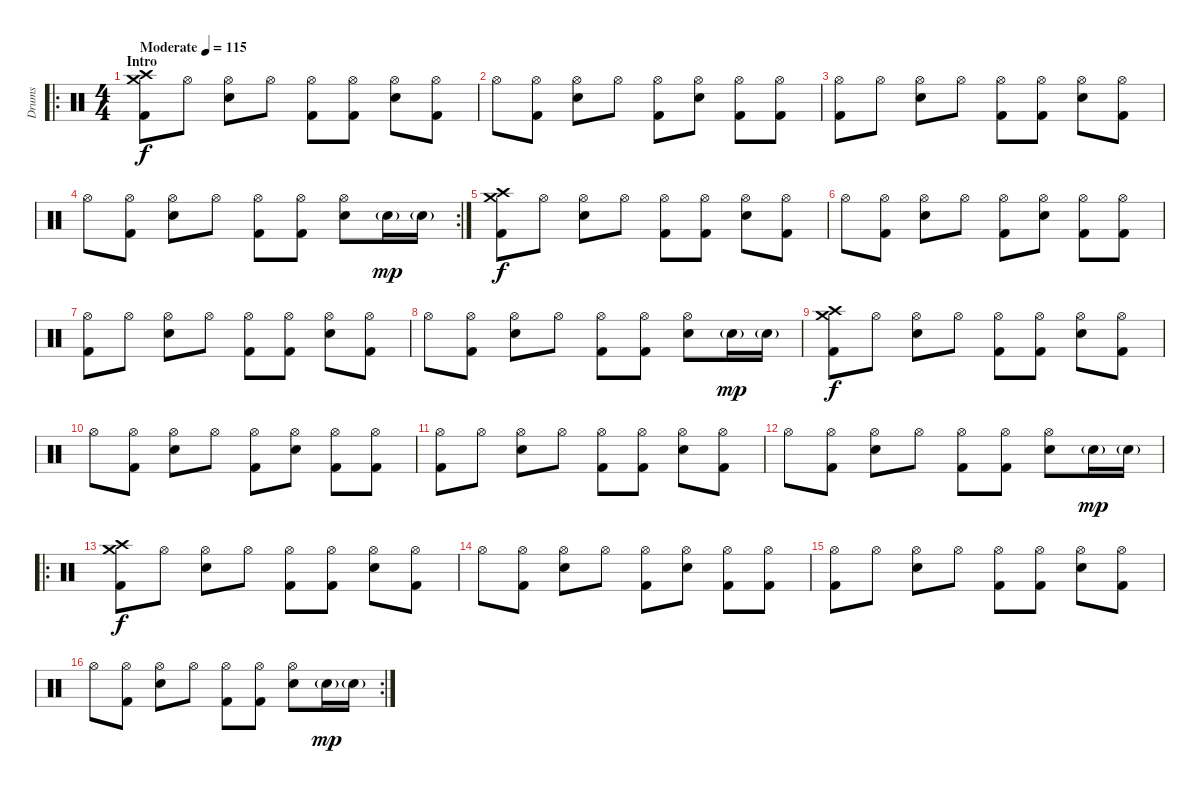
\track ("Drums" "Drums") {instrument percussion}
\staff {score}
\articulation defaults
\ro
\ts (4 4)
\section ("" "Intro")
\tempo (115 "Moderate")
\clef neutral
\ks c
("Crash high (hit)" "Crash medium (hit)" "Kick (hit) 2").8{dy f} "Hi-Hat (open)".8 ("Hi-Hat (open)" "Electric Snare (hit)").8 "Hi-Hat (open)".8 ("Hi-Hat (open)" "Kick (hit) 2").8 ("Hi-Hat (open)" "Kick (hit) 2").8 ("Hi-Hat (open)" "Electric Snare (hit)").8 ("Hi-Hat (open)" "Kick (hit) 2").8 |
"Hi-Hat (open)".8 ("Hi-Hat (open)" "Kick (hit) 2").8 ("Hi-Hat (open)" "Electric Snare (hit)").8 "Hi-Hat (open)".8 ("Hi-Hat (open)" "Kick (hit) 2").8 ("Hi-Hat (open)" "Electric Snare (hit)").8 ("Hi-Hat (open)" "Kick (hit) 2").8 ("Hi-Hat (open)" "Kick (hit) 2").8 |
("Hi-Hat (open)" "Kick (hit) 2").8 "Hi-Hat (open)".8 ("Hi-Hat (open)" "Electric Snare (hit)").8 "Hi-Hat (open)".8 ("Hi-Hat (open)" "Kick (hit) 2").8 ("Hi-Hat (open)" "Kick (hit) 2").8 ("Hi-Hat (open)" "Electric Snare (hit)").8 ("Hi-Hat (open)" "Kick (hit) 2").8 |
\rc 2 "Hi-Hat (open)".8
("Hi-Hat (open)" "Kick (hit) 2").8 ("Hi-Hat (open)" "Electric Snare (hit)").8 "Hi-Hat (open)".8 ("Hi-Hat (open)" "Kick (hit) 2").8 ("Hi-Hat (open)" "Kick (hit) 2").8 ("Hi-Hat (open)" "Electric Snare (hit)").8 "Electric Snare (hit)"{g}.16{dy mp} "Electric Snare (hit)"{g}.16 |
("Crash high (hit)" "Crash medium (hit)" "Kick (hit) 2").8{dy f} "Hi-Hat (open)".8 ("Hi-Hat (open)" "Electric Snare (hit)").8 "Hi-Hat (open)".8 ("Hi-Hat (open)" "Kick (hit) 2").8 ("Hi-Hat (open)" "Kick (hit) 2").8 ("Hi-Hat (open)" "Electric Snare (hit)").8 ("Hi-Hat (open)" "Kick (hit) 2").8 |
"Hi-Hat (open)".8 ("Hi-Hat (open)" "Kick (hit) 2").8 ("Hi-Hat (open)" "Electric Snare (hit)").8 "Hi-Hat (open)".8 ("Hi-Hat (open)" "Kick (hit) 2").8 ("Hi-Hat (open)" "Electric Snare (hit)").8 ("Hi-Hat (open)" "Kick (hit) 2").8 ("Hi-Hat (open)" "Kick (hit) 2").8 |
("Hi-Hat (open)" "Kick (hit) 2").8 "Hi-Hat (open)".8 ("Hi-Hat (open)" "Electric Snare (hit)").8 "Hi-Hat (open)".8 ("Hi-Hat (open)" "Kick (hit) 2").8 ("Hi-Hat (open)" "Kick (hit) 2").8 ("Hi-Hat (open)" "Electric Snare (hit)").8 ("Hi-Hat (open)" "Kick (hit) 2").8 |
"Hi-Hat (open)".8 ("Hi-Hat (open)" "Kick (hit) 2").8 ("Hi-Hat (open)" "Electric Snare (hit)").8 "Hi-Hat (open)".8 ("Hi-Hat (open)" "Kick (hit) 2").8 ("Hi-Hat (open)" "Kick (hit) 2").8 ("Hi-Hat (open)" "Electric Snare (hit)").8 "Electric Snare (hit)"{g}.16{dy mp} "Electric Snare (hit)"{g}.16 |
("Crash high (hit)" "Crash medium (hit)" "Kick (hit) 2").8{dy f} "Hi-Hat (open)".8 ("Hi-Hat (open)" "Electric Snare (hit)").8 "Hi-Hat (open)".8 ("Hi-Hat (open)" "Kick (hit) 2").8 ("Hi-Hat (open)" "Kick (hit) 2").8 ("Hi-Hat (open)" "Electric Snare (hit)").8 ("Hi-Hat (open)" "Kick (hit) 2").8 |
"Hi-Hat (open)".8 ("Hi-Hat (open)" "Kick (hit) 2").8 ("Hi-Hat (open)" "Electric Snare (hit)").8 "Hi-Hat (open)".8 ("Hi-Hat (open)" "Kick (hit) 2").8 ("Hi-Hat (open)" "Electric Snare (hit)").8 ("Hi-Hat (open)" "Kick (hit) 2").8 ("Hi-Hat (open)" "Kick (hit) 2").8 |
("Hi-Hat (open)" "Kick (hit) 2").8 "Hi-Hat (open)".8 ("Hi-Hat (open)" "Electric Snare (hit)").8 "Hi-Hat (open)".8 ("Hi-Hat (open)" "Kick (hit) 2").8 ("Hi-Hat (open)" "Kick (hit) 2").8 ("Hi-Hat (open)" "Electric Snare (hit)").8 ("Hi-Hat (open)" "Kick (hit) 2").8 |
"Hi-Hat (open)".8 ("Hi-Hat (open)" "Kick (hit) 2").8 ("Hi-Hat (open)" "Electric Snare (hit)").8 "Hi-Hat (open)".8 ("Hi-Hat (open)" "Kick (hit) 2").8 ("Hi-Hat (open)" "Kick (hit) 2").8 ("Hi-Hat (open)" "Electric Snare (hit)").8 "Electric Snare (hit)"{g}.16{dy mp} "Electric Snare (hit)"{g}.16 |
\ro
("Crash high (hit)" "Crash medium (hit)" "Kick (hit) 2").8{dy f} "Hi-Hat (open)".8 ("Hi-Hat (open)" "Electric Snare (hit)").8 "Hi-Hat (open)".8 ("Hi-Hat (open)" "Kick (hit) 2").8 ("Hi-Hat (open)" "Kick (hit) 2").8 ("Hi-Hat (open)" "Electric Snare (hit)").8 ("Hi-Hat (open)" "Kick (hit) 2").8 |
"Hi-Hat (open)".8 ("Hi-Hat (open)" "Kick (hit) 2").8 ("Hi-Hat (open)" "Electric Snare (hit)").8 "Hi-Hat (open)".8 ("Hi-Hat (open)" "Kick (hit) 2").8 ("Hi-Hat (open)" "Electric Snare (hit)").8 ("Hi-Hat (open)" "Kick (hit) 2").8 ("Hi-Hat (open)" "Kick (hit) 2").8 |
("Hi-Hat (open)" "Kick (hit) 2").8 "Hi-Hat (open)".8 ("Hi-Hat (open)" "Electric Snare (hit)").8 "Hi-Hat (open)".8 ("Hi-Hat (open)" "Kick (hit) 2").8 ("Hi-Hat (open)" "Kick (hit) 2").8 ("Hi-Hat (open)" "Electric Snare (hit)").8 ("Hi-Hat (open)" "Kick (hit) 2").8 |
\rc 2 "Hi-Hat (open)".8
("Hi-Hat (open)" "Kick (hit) 2").8 ("Hi-Hat (open)" "Electric Snare (hit)").8 "Hi-Hat (open)".8 ("Hi-Hat (open)" "Kick (hit) 2").8 ("Hi-Hat (open)" "Kick (hit) 2").8 ("Hi-Hat (open)" "Electric Snare (hit)").8 "Electric Snare (hit)"{g}.16{dy mp} "Electric Snare (hit)"{g}.16
